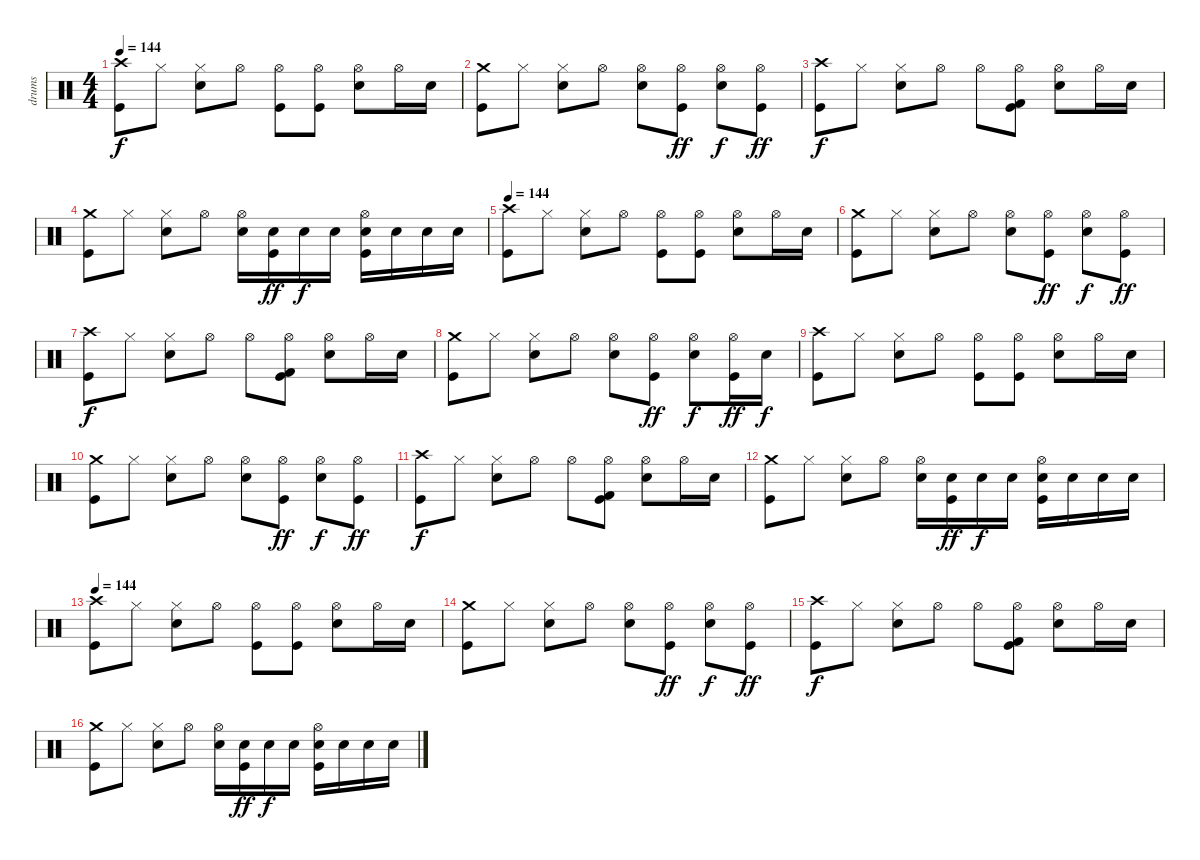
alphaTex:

\track ("drums" "drums") {instrument percussion}
\staff {score}
\articulation defaults
\ts (4 4)
\tempo 144
\clef neutral
\ks c
("Crash high (hit)" "Kick (hit)").8{dy f} "Hi-Hat (closed)".8 ("Hi-Hat (closed)" "Electric Snare (hit)").8 "Hi-Hat (open)".8 ("Hi-Hat (open)" "Kick (hit)").8 ("Hi-Hat (open)" "Kick (hit)").8 ("Hi-Hat (open)" "Electric Snare (hit)").8 "Hi-Hat (open)".16 "Electric Snare (hit)".16 |
("Crash medium (hit)" "Kick (hit)").8 "Hi-Hat (closed)".8 ("Hi-Hat (closed)" "Electric Snare (hit)").8 "Hi-Hat (open)".8 ("Hi-Hat (open)" "Electric Snare (hit)").8 ("Hi-Hat (open)" "Kick (hit)").8{dy ff} ("Hi-Hat (open)" "Electric Snare (hit)").8{dy f} ("Hi-Hat (open)" "Kick (hit)").8{dy ff} |
("Crash high (hit)" "Kick (hit)").8{dy f} "Hi-Hat (closed)".8 ("Hi-Hat (closed)" "Electric Snare (hit)").8 "Hi-Hat (open)".8 "Hi-Hat (open)".8 ("Hi-Hat (open)" "Kick (hit) 2" "Kick (hit)").8 ("Hi-Hat (open)" "Electric Snare (hit)").8 "Hi-Hat (open)".16 "Electric Snare (hit)".16 |
("Crash medium (hit)" "Kick (hit)").8 "Hi-Hat (closed)".8 ("Hi-Hat (closed)" "Electric Snare (hit)").8 "Hi-Hat (open)".8 ("Hi-Hat (open)" "Electric Snare (hit)").16 ("Electric Snare (hit)" "Kick (hit)").16{dy ff} "Electric Snare (hit)".16{dy f} "Electric Snare (hit)".16 ("Hi-Hat (open)" "Electric Snare (hit)" "Kick (hit)").16 "Electric Snare (hit)".16 "Electric Snare (hit)".16 "Electric Snare (hit)".16 |
\tempo 144
("Crash high (hit)" "Kick (hit)").8 "Hi-Hat (closed)".8 ("Hi-Hat (closed)" "Electric Snare (hit)").8 "Hi-Hat (open)".8 ("Hi-Hat (open)" "Kick (hit)").8 ("Hi-Hat (open)" "Kick (hit)").8 ("Hi-Hat (open)" "Electric Snare (hit)").8 "Hi-Hat (open)".16 "Electric Snare (hit)".16 |
("Crash medium (hit)" "Kick (hit)").8 "Hi-Hat (closed)".8 ("Hi-Hat (closed)" "Electric Snare (hit)").8 "Hi-Hat (open)".8 ("Hi-Hat (open)" "Electric Snare (hit)").8 ("Hi-Hat (open)" "Kick (hit)").8{dy ff} ("Hi-Hat (open)" "Electric Snare (hit)").8{dy f} ("Hi-Hat (open)" "Kick (hit)").8{dy ff} |
("Crash high (hit)" "Kick (hit)").8{dy f} "Hi-Hat (closed)".8 ("Hi-Hat (closed)" "Electric Snare (hit)").8 "Hi-Hat (open)".8 "Hi-Hat (open)".8 ("Hi-Hat (open)" "Kick (hit) 2" "Kick (hit)").8 ("Hi-Hat (open)" "Electric Snare (hit)").8 "Hi-Hat (open)".16 "Electric Snare (hit)".16 |
("Crash medium (hit)" "Kick (hit)").8 "Hi-Hat (closed)".8 ("Hi-Hat (closed)" "Electric Snare (hit)").8 "Hi-Hat (open)".8 ("Hi-Hat (open)" "Electric Snare (hit)").8 ("Hi-Hat (open)" "Kick (hit)").8{dy ff} ("Hi-Hat (open)" "Electric Snare (hit)").8{dy f} ("Hi-Hat (open)" "Kick (hit)").16{dy ff} "Electric Snare (hit)".16{dy f} |
("Crash high (hit)" "Kick (hit)").8 "Hi-Hat (closed)".8 ("Hi-Hat (closed)" "Electric Snare (hit)").8 "Hi-Hat (open)".8 ("Hi-Hat (open)" "Kick (hit)").8 ("Hi-Hat (open)" "Kick (hit)").8 ("Hi-Hat (open)" "Electric Snare (hit)").8 "Hi-Hat (open)".16 "Electric Snare (hit)".16 |
("Crash medium (hit)" "Kick (hit)").8 "Hi-Hat (closed)".8 ("Hi-Hat (closed)" "Electric Snare (hit)").8 "Hi-Hat (open)".8 ("Hi-Hat (open)" "Electric Snare (hit)").8 ("Hi-Hat (open)" "Kick (hit)").8{dy ff} ("Hi-Hat (open)" "Electric Snare (hit)").8{dy f} ("Hi-Hat (open)" "Kick (hit)").8{dy ff} |
("Crash high (hit)" "Kick (hit)").8{dy f} "Hi-Hat (closed)".8 ("Hi-Hat (closed)" "Electric Snare (hit)").8 "Hi-Hat (open)".8 "Hi-Hat (open)".8 ("Hi-Hat (open)" "Kick (hit) 2" "Kick (hit)").8 ("Hi-Hat (open)" "Electric Snare (hit)").8 "Hi-Hat (open)".16 "Electric Snare (hit)".16 |
("Crash medium (hit)" "Kick (hit)").8 "Hi-Hat (closed)".8 ("Hi-Hat (closed)" "Electric Snare (hit)").8 "Hi-Hat (open)".8 ("Hi-Hat (open)" "Electric Snare (hit)").16 ("Electric Snare (hit)" "Kick (hit)").16{dy ff} "Electric Snare (hit)".16{dy f} "Electric Snare (hit)".16 ("Hi-Hat (open)" "Electric Snare (hit)" "Kick (hit)").16 "Electric Snare (hit)".16 "Electric Snare (hit)".16 "Electric Snare (hit)".16 |
\tempo 144
("Crash high (hit)" "Kick (hit)").8 "Hi-Hat (closed)".8 ("Hi-Hat (closed)" "Electric Snare (hit)").8 "Hi-Hat (open)".8 ("Hi-Hat (open)" "Kick (hit)").8 ("Hi-Hat (open)" "Kick (hit)").8 ("Hi-Hat (open)" "Electric Snare (hit)").8 "Hi-Hat (open)".16 "Electric Snare (hit)".16 |
("Crash medium (hit)" "Kick (hit)").8 "Hi-Hat (closed)".8 ("Hi-Hat (closed)" "Electric Snare (hit)").8 "Hi-Hat (open)".8 ("Hi-Hat (open)" "Electric Snare (hit)").8 ("Hi-Hat (open)" "Kick (hit)").8{dy ff} ("Hi-Hat (open)" "Electric Snare (hit)").8{dy f} ("Hi-Hat (open)" "Kick (hit)").8{dy ff} |
("Crash high (hit)" "Kick (hit)").8{dy f} "Hi-Hat (closed)".8 ("Hi-Hat (closed)" "Electric Snare (hit)").8 "Hi-Hat (open)".8 "Hi-Hat (open)".8 ("Hi-Hat (open)" "Kick (hit) 2" "Kick (hit)").8 ("Hi-Hat (open)" "Electric Snare (hit)").8 "Hi-Hat (open)".16 "Electric Snare (hit)".16 |
("Crash medium (hit)" "Kick (hit)").8 "Hi-Hat (closed)".8 ("Hi-Hat (closed)" "Electric Snare (hit)").8 "Hi-Hat (open)".8 ("Hi-Hat (open)" "Electric Snare (hit)").16 ("Electric Snare (hit)" "Kick (hit)").16{dy ff} "Electric Snare (hit)".16{dy f} "Electric Snare (hit)".16 ("Hi-Hat (open)" "Electric Snare (hit)" "Kick (hit)").16 "Electric Snare (hit)".16 "Electric Snare (hit)".16 "Electric Snare (hit)".16
